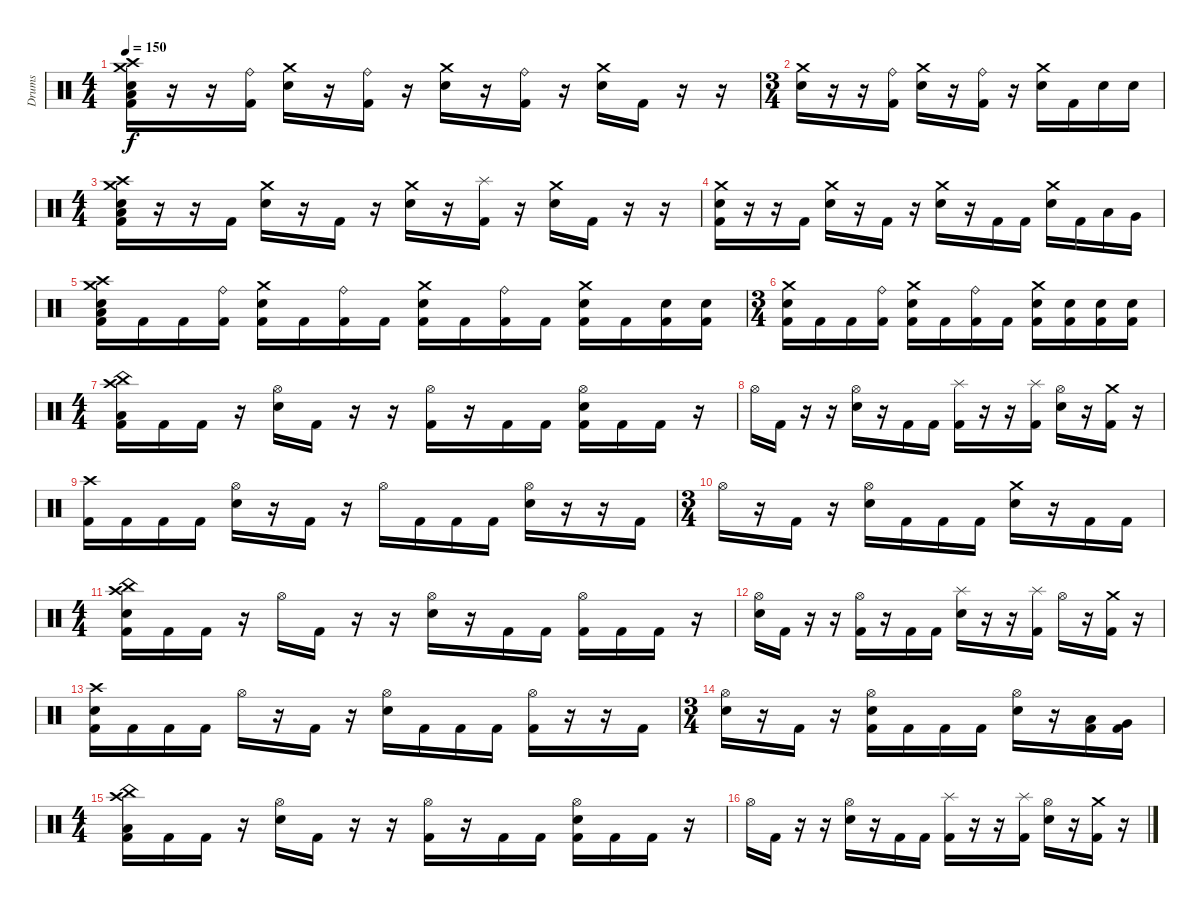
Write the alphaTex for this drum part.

\track ("Drums" "Drums") {instrument percussion}
\staff {score}
\articulation defaults
\ts (4 4)
\tempo 150
\clef neutral
\ks c
("Crash high (hit)" "Crash medium (hit)" "Electric Snare (hit)" "Low Floor Tom (hit)" "Kick (hit) 2").16{dy f} r.16 r.16 ("Ride (bell)" "Kick (hit) 2").16 ("Crash medium (hit)" "Electric Snare (hit)").16 r.16 ("Ride (bell)" "Kick (hit) 2").16 r.16 ("Crash medium (hit)" "Electric Snare (hit)").16 r.16 ("Ride (bell)" "Kick (hit) 2").16 r.16 ("Crash medium (hit)" "Electric Snare (hit)").16 "Kick (hit) 2".16 r.16 r.16 |
\ts (3 4)
("Crash medium (hit)" "Electric Snare (hit)").16 r.16 r.16 ("Ride (bell)" "Kick (hit) 2").16 ("Crash medium (hit)" "Electric Snare (hit)").16 r.16 ("Ride (bell)" "Kick (hit) 2").16 r.16 ("Crash medium (hit)" "Electric Snare (hit)").16 "Kick (hit) 2".16 "Electric Snare (hit)".16 "Electric Snare (hit)".16 |
\ts (4 4)
("Crash high (hit)" "Crash medium (hit)" "Electric Snare (hit)" "Low Floor Tom (hit)" "Kick (hit) 2").16 r.16 r.16 "Kick (hit) 2".16 ("Crash medium (hit)" "Electric Snare (hit)").16 r.16 "Kick (hit) 2".16 r.16 ("Crash medium (hit)" "Electric Snare (hit)").16 r.16 ("Splash (hit)" "Kick (hit) 2").16 r.16 ("Crash medium (hit)" "Electric Snare (hit)").16 "Kick (hit) 2".16 r.16 r.16 |
("Crash medium (hit)" "Electric Snare (hit)" "Kick (hit) 2").16 r.16 r.16 "Kick (hit) 2".16 ("Crash medium (hit)" "Electric Snare (hit)").16 r.16 "Kick (hit) 2".16 r.16 ("Crash medium (hit)" "Electric Snare (hit)").16 r.16 "Kick (hit) 2".16 "Kick (hit) 2".16 ("Crash medium (hit)" "Electric Snare (hit)").16 "Kick (hit) 2".16 "Low Tom (hit)".16 "Very Low Tom (hit)".16 |
("Crash high (hit)" "Crash medium (hit)" "Electric Snare (hit)" "Low Floor Tom (hit)" "Kick (hit) 2").16 "Kick (hit) 2".16 "Kick (hit) 2".16 ("Ride (bell)" "Kick (hit) 2").16 ("Crash medium (hit)" "Electric Snare (hit)" "Kick (hit) 2").16 "Kick (hit) 2".16 ("Ride (bell)" "Kick (hit) 2").16 "Kick (hit) 2".16 ("Crash medium (hit)" "Electric Snare (hit)" "Kick (hit) 2").16 "Kick (hit) 2".16 ("Ride (bell)" "Kick (hit) 2").16 "Kick (hit) 2".16 ("Crash medium (hit)" "Electric Snare (hit)" "Kick (hit) 2").16 "Kick (hit) 2".16 ("Electric Snare (hit)" "Kick (hit) 2").16 ("Electric Snare (hit)" "Kick (hit) 2").16 |
\ts (3 4)
("Crash medium (hit)" "Electric Snare (hit)" "Kick (hit) 2").16 "Kick (hit) 2".16 "Kick (hit) 2".16 ("Ride (bell)" "Kick (hit) 2").16 ("Crash medium (hit)" "Electric Snare (hit)" "Kick (hit) 2").16 "Kick (hit) 2".16 ("Ride (bell)" "Kick (hit) 2").16 "Kick (hit) 2".16 ("Crash medium (hit)" "Electric Snare (hit)" "Kick (hit) 2").16 ("Electric Snare (hit)" "Kick (hit) 2").16 ("Electric Snare (hit)" "Kick (hit) 2").16 ("Electric Snare (hit)" "Kick (hit) 2").16 |
\ts (4 4)
("Crash high (hit)" "China (hit)" "Low Floor Tom (hit)" "Kick (hit) 2").16 "Kick (hit) 2".16 "Kick (hit) 2".16 r.16 ("Hi-Hat (open)" "Electric Snare (hit)").16 "Kick (hit) 2".16 r.16 r.16 ("Hi-Hat (open)" "Kick (hit) 2").16 r.16 "Kick (hit) 2".16 "Kick (hit) 2".16 ("Hi-Hat (open)" "Electric Snare (hit)" "Kick (hit) 2").16 "Kick (hit) 2".16 "Kick (hit) 2".16 r.16 |
"Hi-Hat (open)".16 "Kick (hit) 2".16 r.16 r.16 ("Hi-Hat (open)" "Electric Snare (hit)").16 r.16 "Kick (hit) 2".16 "Kick (hit) 2".16 ("Splash (hit)" "Kick (hit) 2").16 r.16 r.16 ("Splash (hit)" "Kick (hit) 2").16 ("Hi-Hat (open)" "Electric Snare (hit)").16 r.16 ("Crash medium (hit)" "Kick (hit) 2").16 r.16 |
("Crash high (hit)" "Kick (hit) 2").16 "Kick (hit) 2".16 "Kick (hit) 2".16 "Kick (hit) 2".16 ("Hi-Hat (open)" "Electric Snare (hit)").16 r.16 "Kick (hit) 2".16 r.16 "Hi-Hat (open)".16 "Kick (hit) 2".16 "Kick (hit) 2".16 "Kick (hit) 2".16 ("Hi-Hat (open)" "Electric Snare (hit)").16 r.16 r.16 "Kick (hit) 2".16 |
\ts (3 4)
"Hi-Hat (open)".16 r.16 "Kick (hit) 2".16 r.16 ("Hi-Hat (open)" "Electric Snare (hit)").16 "Kick (hit) 2".16 "Kick (hit) 2".16 "Kick (hit) 2".16 ("Crash medium (hit)" "Electric Snare (hit)").16 r.16 "Kick (hit) 2".16 "Kick (hit) 2".16 |
\ts (4 4)
("Crash high (hit)" "China (hit)" "Electric Snare (hit)" "Kick (hit) 2").16 "Kick (hit) 2".16 "Kick (hit) 2".16 r.16 "Hi-Hat (open)".16 "Kick (hit) 2".16 r.16 r.16 ("Hi-Hat (open)" "Electric Snare (hit)").16 r.16 "Kick (hit) 2".16 "Kick (hit) 2".16 ("Hi-Hat (open)" "Kick (hit) 2").16 "Kick (hit) 2".16 "Kick (hit) 2".16 r.16 |
("Hi-Hat (open)" "Electric Snare (hit)").16 "Kick (hit) 2".16 r.16 r.16 ("Hi-Hat (open)" "Kick (hit) 2").16 r.16 "Kick (hit) 2".16 "Kick (hit) 2".16 ("Splash (hit)" "Electric Snare (hit)").16 r.16 r.16 ("Splash (hit)" "Kick (hit) 2").16 "Hi-Hat (open)".16 r.16 ("Crash medium (hit)" "Kick (hit) 2").16 r.16 |
("Crash high (hit)" "Electric Snare (hit)" "Kick (hit) 2").16 "Kick (hit) 2".16 "Kick (hit) 2".16 "Kick (hit) 2".16 "Hi-Hat (open)".16 r.16 "Kick (hit) 2".16 r.16 ("Hi-Hat (open)" "Electric Snare (hit)").16 "Kick (hit) 2".16 "Kick (hit) 2".16 "Kick (hit) 2".16 ("Hi-Hat (open)" "Kick (hit) 2").16 r.16 r.16 "Kick (hit) 2".16 |
\ts (3 4)
("Hi-Hat (open)" "Electric Snare (hit)").16 r.16 "Kick (hit) 2".16 r.16 ("Hi-Hat (open)" "Electric Snare (hit)" "Kick (hit) 2").16 "Kick (hit) 2".16 "Kick (hit) 2".16 "Kick (hit) 2".16 ("Hi-Hat (open)" "Electric Snare (hit)").16 r.16 ("Low Tom (hit)" "Kick (hit) 2").16 ("Very Low Tom (hit)" "Kick (hit) 2").16 |
\ts (4 4)
("Crash high (hit)" "China (hit)" "Low Floor Tom (hit)" "Kick (hit) 2").16 "Kick (hit) 2".16 "Kick (hit) 2".16 r.16 ("Hi-Hat (open)" "Electric Snare (hit)").16 "Kick (hit) 2".16 r.16 r.16 ("Hi-Hat (open)" "Kick (hit) 2").16 r.16 "Kick (hit) 2".16 "Kick (hit) 2".16 ("Hi-Hat (open)" "Electric Snare (hit)" "Kick (hit) 2").16 "Kick (hit) 2".16 "Kick (hit) 2".16 r.16 |
"Hi-Hat (open)".16 "Kick (hit) 2".16 r.16 r.16 ("Hi-Hat (open)" "Electric Snare (hit)").16 r.16 "Kick (hit) 2".16 "Kick (hit) 2".16 ("Splash (hit)" "Kick (hit) 2").16 r.16 r.16 ("Splash (hit)" "Kick (hit) 2").16 ("Hi-Hat (open)" "Electric Snare (hit)").16 r.16 ("Crash medium (hit)" "Kick (hit) 2").16 r.16
